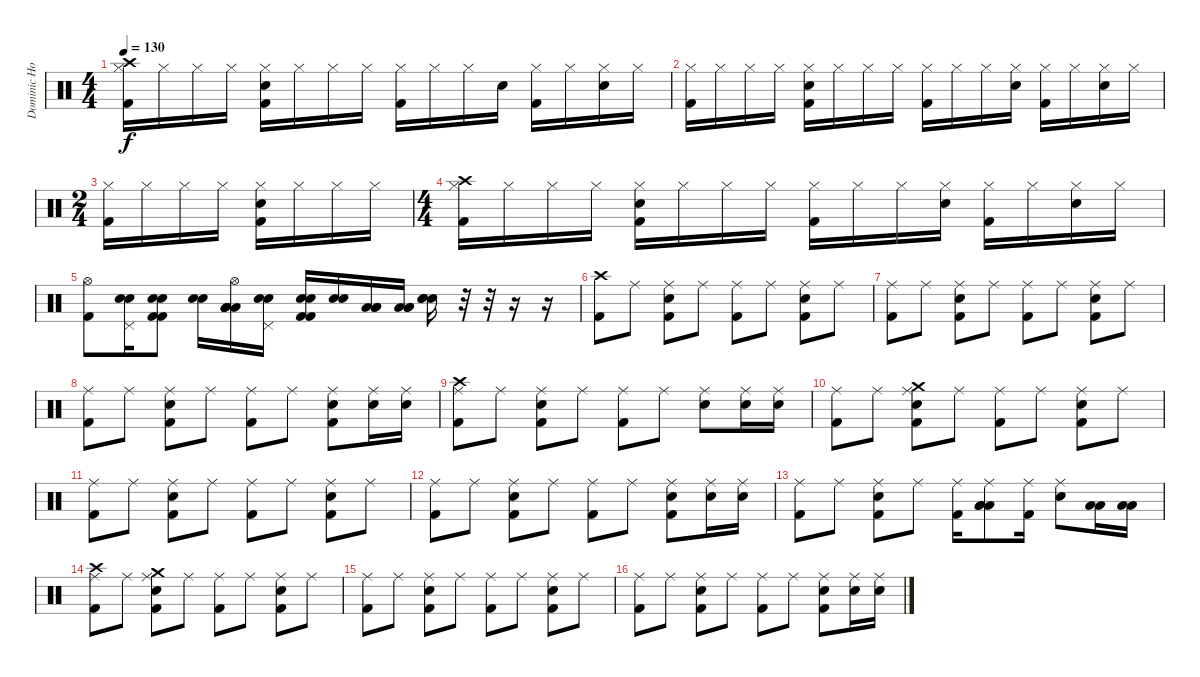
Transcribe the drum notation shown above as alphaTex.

\track ("Dominic Howard" "Dominic Ho") {instrument percussion}
\staff {score}
\articulation defaults
\ts (4 4)
\tempo 130
\clef neutral
\ks c
("Crash high (hit)" "Hi-Hat (closed)" "Kick (hit) 2").16{dy f} "Hi-Hat (closed)".16 "Hi-Hat (closed)".16 "Hi-Hat (closed)".16 ("Hi-Hat (closed)" "Electric Snare (hit)" "Kick (hit) 2").16 "Hi-Hat (closed)".16 "Hi-Hat (closed)".16 "Hi-Hat (closed)".16 ("Hi-Hat (closed)" "Kick (hit) 2").16 "Hi-Hat (closed)".16 "Hi-Hat (closed)".16 "Electric Snare (hit)".16 ("Hi-Hat (closed)" "Kick (hit) 2").16 "Hi-Hat (closed)".16 ("Hi-Hat (closed)" "Electric Snare (hit)").16 "Hi-Hat (closed)".16 |
("Hi-Hat (closed)" "Kick (hit) 2").16 "Hi-Hat (closed)".16 "Hi-Hat (closed)".16 "Hi-Hat (closed)".16 ("Hi-Hat (closed)" "Kick (hit) 2" "Electric Snare (hit)").16 "Hi-Hat (closed)".16 "Hi-Hat (closed)".16 "Hi-Hat (closed)".16 ("Hi-Hat (closed)" "Kick (hit) 2").16 "Hi-Hat (closed)".16 "Hi-Hat (closed)".16 ("Hi-Hat (closed)" "Electric Snare (hit)").16 ("Hi-Hat (closed)" "Kick (hit) 2").16 "Hi-Hat (closed)".16 ("Hi-Hat (closed)" "Electric Snare (hit)").16 "Hi-Hat (closed)".16 |
\ts (2 4)
("Hi-Hat (closed)" "Kick (hit) 2").16 "Hi-Hat (closed)".16 "Hi-Hat (closed)".16 "Hi-Hat (closed)".16 ("Hi-Hat (closed)" "Kick (hit) 2" "Electric Snare (hit)").16 "Hi-Hat (closed)".16 "Hi-Hat (closed)".16 "Hi-Hat (closed)".16 |
\ts (4 4)
("Crash high (hit)" "Hi-Hat (closed)" "Kick (hit) 2").16 "Hi-Hat (closed)".16 "Hi-Hat (closed)".16 "Hi-Hat (closed)".16 ("Hi-Hat (closed)" "Electric Snare (hit)" "Kick (hit) 2").16 "Hi-Hat (closed)".16 "Hi-Hat (closed)".16 "Hi-Hat (closed)".16 ("Hi-Hat (closed)" "Kick (hit) 2").16 "Hi-Hat (closed)".16 "Hi-Hat (closed)".16 ("Hi-Hat (closed)" "Electric Snare (hit)").16 ("Hi-Hat (closed)" "Kick (hit) 2").16 "Hi-Hat (closed)".16 ("Electric Snare (hit)" "Hi-Hat (closed)").16 "Hi-Hat (closed)".16 |
("Hi-Hat (open)" "Kick (hit) 2").8 ("Pedal Hi-Hat (hit)" "Electric Snare (hit)" "Electric Snare (hit)").16 ("Kick (hit) 2" "Electric Snare (hit)" "Electric Snare (hit)" "Kick (hit) 2").8 ("Electric Snare (hit)" "Electric Snare (hit)").16 ("Hi-Hat (open)" "Low Tom (hit)" "Low Tom (hit)" "Low Tom (hit)" "Low Tom (hit)").16 ("Pedal Hi-Hat (hit)" "Electric Snare (hit)" "Electric Snare (hit)").16 ("Kick (hit) 2" "Electric Snare (hit)" "Electric Snare (hit)" "Kick (hit) 2").16 ("Electric Snare (hit)" "Electric Snare (hit)").16 ("Low Tom (hit)" "Low Tom (hit)" "Low Tom (hit)").16 ("Low Tom (hit)" "Low Tom (hit)" "Low Tom (hit)").16 ("Electric Snare (hit)" "Electric Snare (hit)" "Electric Snare (hit)").16 r.32 r.32 r.16 r.16 |
("Kick (hit) 2" "Crash high (hit)").8 "Ride (middle)".8 ("Ride (middle)" "Kick (hit) 2" "Electric Snare (hit)").8 "Ride (middle)".8 ("Ride (middle)" "Kick (hit) 2").8 "Ride (middle)".8 ("Ride (middle)" "Kick (hit) 2" "Electric Snare (hit)").8 "Ride (middle)".8 |
("Ride (middle)" "Kick (hit) 2").8 "Ride (middle)".8 ("Ride (middle)" "Kick (hit) 2" "Electric Snare (hit)").8 "Ride (middle)".8 ("Ride (middle)" "Kick (hit) 2").8 "Ride (middle)".8 ("Ride (middle)" "Kick (hit) 2" "Electric Snare (hit)").8 "Ride (middle)".8 |
("Ride (middle)" "Kick (hit) 2").8 "Ride (middle)".8 ("Ride (middle)" "Kick (hit) 2" "Electric Snare (hit)").8 "Ride (middle)".8 ("Ride (middle)" "Kick (hit) 2").8 "Ride (middle)".8 ("Ride (middle)" "Kick (hit) 2" "Electric Snare (hit)").8 ("Ride (middle)" "Electric Snare (hit)").16 ("Ride (middle)" "Electric Snare (hit)").16 |
("Ride (middle)" "Kick (hit) 2" "Crash high (hit)").8 "Ride (middle)".8 ("Ride (middle)" "Kick (hit) 2" "Electric Snare (hit)").8 "Ride (middle)".8 ("Ride (middle)" "Kick (hit) 2").8 "Ride (middle)".8 ("Ride (middle)" "Electric Snare (hit)").8 ("Ride (middle)" "Electric Snare (hit)").16 ("Ride (middle)" "Electric Snare (hit)").16 |
("Ride (middle)" "Kick (hit) 2").8 "Ride (middle)".8 ("Crash medium (hit)" "Ride (middle)" "Kick (hit) 2" "Electric Snare (hit)").8 "Ride (middle)".8 ("Ride (middle)" "Kick (hit) 2").8 "Ride (middle)".8 ("Ride (middle)" "Kick (hit) 2" "Electric Snare (hit)").8 "Ride (middle)".8 |
("Ride (middle)" "Kick (hit) 2").8 "Ride (middle)".8 ("Ride (middle)" "Kick (hit) 2" "Electric Snare (hit)").8 "Ride (middle)".8 ("Ride (middle)" "Kick (hit) 2").8 "Ride (middle)".8 ("Ride (middle)" "Kick (hit) 2" "Electric Snare (hit)").8 "Ride (middle)".8 |
("Ride (middle)" "Kick (hit) 2").8 "Ride (middle)".8 ("Ride (middle)" "Kick (hit) 2" "Electric Snare (hit)").8 "Ride (middle)".8 ("Ride (middle)" "Kick (hit) 2").8 "Ride (middle)".8 ("Ride (middle)" "Kick (hit) 2" "Electric Snare (hit)").8 ("Ride (middle)" "Electric Snare (hit)").16 ("Ride (middle)" "Electric Snare (hit)").16 |
("Ride (middle)" "Kick (hit) 2").8 "Ride (middle)".8 ("Ride (middle)" "Kick (hit) 2" "Electric Snare (hit)").8 "Ride (middle)".8 ("Ride (middle)" "Kick (hit) 2").16 ("Ride (middle)" "Low Tom (hit)" "Low Tom (hit)" "Low Tom (hit)").8 ("Ride (middle)" "Kick (hit) 2").16 ("Ride (middle)" "Electric Snare (hit)").8 ("Low Tom (hit)" "Low Tom (hit)").16 ("Low Tom (hit)" "Low Tom (hit)").16 |
("Crash high (hit)" "Ride (middle)" "Kick (hit) 2").8 "Ride (middle)".8 ("Crash medium (hit)" "Ride (middle)" "Kick (hit) 2" "Electric Snare (hit)").8 "Ride (middle)".8 ("Ride (middle)" "Kick (hit) 2").8 "Ride (middle)".8 ("Ride (middle)" "Kick (hit) 2" "Electric Snare (hit)").8 "Ride (middle)".8 |
("Ride (middle)" "Kick (hit) 2").8 "Ride (middle)".8 ("Ride (middle)" "Kick (hit) 2" "Electric Snare (hit)").8 "Ride (middle)".8 ("Ride (middle)" "Kick (hit) 2").8 "Ride (middle)".8 ("Ride (middle)" "Kick (hit) 2" "Electric Snare (hit)").8 "Ride (middle)".8 |
("Ride (middle)" "Kick (hit) 2").8 "Ride (middle)".8 ("Ride (middle)" "Kick (hit) 2" "Electric Snare (hit)").8 "Ride (middle)".8 ("Ride (middle)" "Kick (hit) 2").8 "Ride (middle)".8 ("Ride (middle)" "Kick (hit) 2" "Electric Snare (hit)").8 ("Ride (middle)" "Electric Snare (hit)").16 ("Ride (middle)" "Electric Snare (hit)").16
